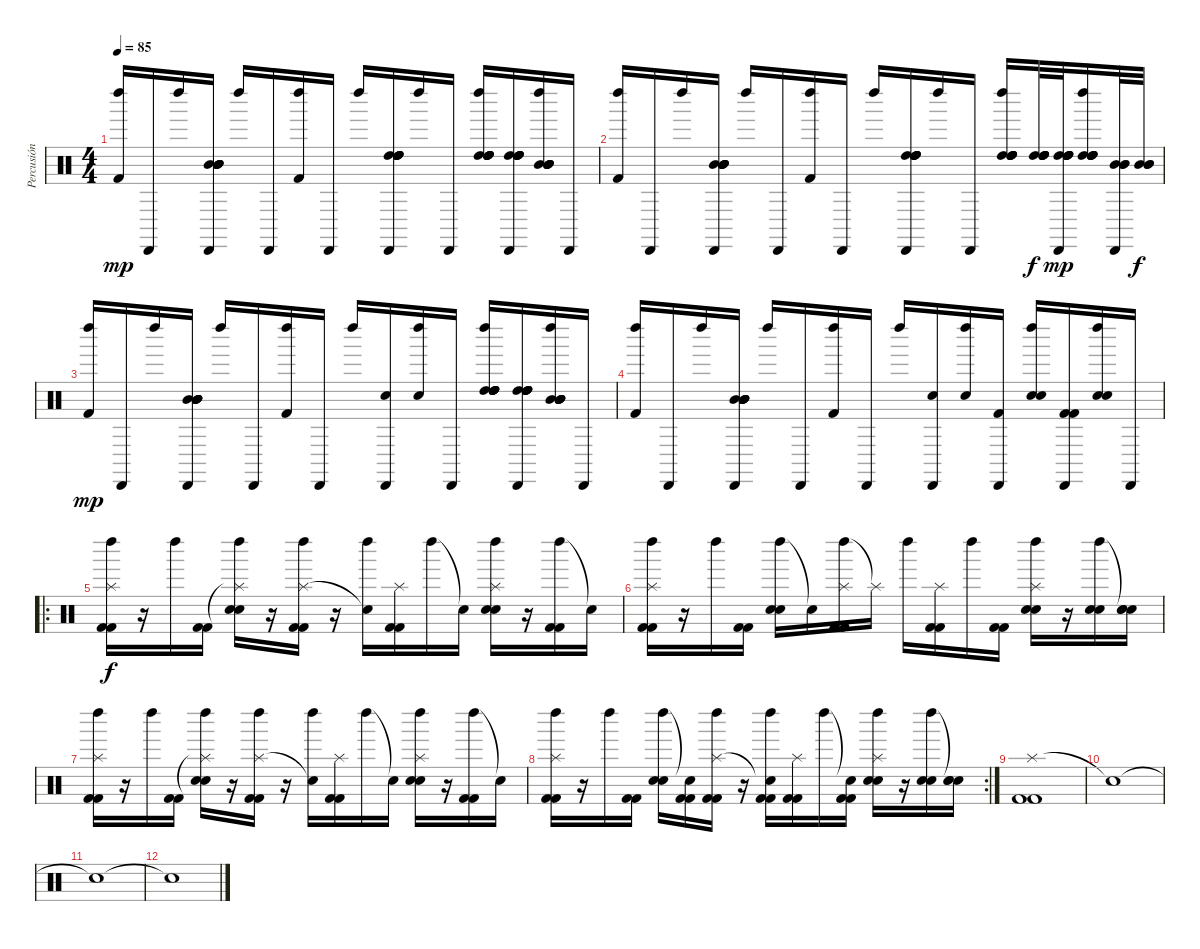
\track ("Percusión" "Percusión") {instrument percussion}
\staff {score}
\articulation defaults
\ts (4 4)
\tempo 85
\clef neutral
\ks c
("Left Maraca (hit)" "Kick (hit) 2").16{dy mp} "Cabasa (hit)".16 "Left Maraca (hit)".16 ("Cabasa (hit)" "Mid Tom (hit)" "Mid Tom (hit)" "Mid Tom (hit)" "Mid Tom (hit)" "Mid Tom (hit)").16 "Left Maraca (hit)".16 "Cabasa (hit)".16 ("Left Maraca (hit)" "Kick (hit) 2").16 "Cabasa (hit)".16 "Left Maraca (hit)".16 ("Cabasa (hit)" "High Tom (hit)" "High Tom (hit)" "High Tom (hit)" "High Tom (hit)" "High Tom (hit)").16 "Left Maraca (hit)".16 "Cabasa (hit)".16 ("Left Maraca (hit)" "High Tom (hit)" "High Tom (hit)" "High Tom (hit)" "High Tom (hit)" "High Tom (hit)").16 ("Cabasa (hit)" "High Tom (hit)" "High Tom (hit)" "High Tom (hit)" "High Tom (hit)" "High Tom (hit)").16 ("Left Maraca (hit)" "Mid Tom (hit)" "Mid Tom (hit)" "Mid Tom (hit)" "Mid Tom (hit)" "Mid Tom (hit)").16 "Cabasa (hit)".16 |
("Left Maraca (hit)" "Kick (hit) 2").16 "Cabasa (hit)".16 "Left Maraca (hit)".16 ("Cabasa (hit)" "Mid Tom (hit)" "Mid Tom (hit)" "Mid Tom (hit)" "Mid Tom (hit)" "Mid Tom (hit)").16 "Left Maraca (hit)".16 "Cabasa (hit)".16 ("Left Maraca (hit)" "Kick (hit) 2").16 "Cabasa (hit)".16 "Left Maraca (hit)".16 ("Cabasa (hit)" "High Tom (hit)" "High Tom (hit)" "High Tom (hit)" "High Tom (hit)" "High Tom (hit)").16 "Left Maraca (hit)".16 "Cabasa (hit)".16 ("Left Maraca (hit)" "High Tom (hit)" "High Tom (hit)" "High Tom (hit)" "High Tom (hit)" "High Tom (hit)").16 ("High Tom (hit)" "High Tom (hit)" "High Tom (hit)" "High Tom (hit)" "High Tom (hit)").32{dy f} ("Cabasa (hit)" "High Tom (hit)" "High Tom (hit)" "High Tom (hit)" "High Tom (hit)" "High Tom (hit)").32{dy mp} ("Left Maraca (hit)" "High Tom (hit)" "High Tom (hit)" "High Tom (hit)" "High Tom (hit)" "High Tom (hit)").16 ("Cabasa (hit)" "Mid Tom (hit)" "Mid Tom (hit)" "Mid Tom (hit)").32 ("Mid Tom (hit)" "Mid Tom (hit)" "Mid Tom (hit)").32{dy f} |
("Left Maraca (hit)" "Kick (hit) 2").16{dy mp} "Cabasa (hit)".16 "Left Maraca (hit)".16 ("Cabasa (hit)" "Mid Tom (hit)" "Mid Tom (hit)" "Mid Tom (hit)" "Mid Tom (hit)" "Mid Tom (hit)").16 "Left Maraca (hit)".16 "Cabasa (hit)".16 ("Left Maraca (hit)" "Kick (hit) 2").16 "Cabasa (hit)".16 "Left Maraca (hit)".16 ("Cabasa (hit)" "Electric Snare (hit)").16 ("Left Maraca (hit)" "Electric Snare (hit)").16 "Cabasa (hit)".16 ("Left Maraca (hit)" "High Tom (hit)" "High Tom (hit)" "High Tom (hit)" "High Tom (hit)" "High Tom (hit)").16 ("Cabasa (hit)" "High Tom (hit)" "High Tom (hit)" "High Tom (hit)" "High Tom (hit)" "High Tom (hit)").16 ("Left Maraca (hit)" "Mid Tom (hit)" "Mid Tom (hit)" "Mid Tom (hit)" "Mid Tom (hit)" "Mid Tom (hit)").16 "Cabasa (hit)".16 |
("Left Maraca (hit)" "Kick (hit) 2").16 "Cabasa (hit)".16 "Left Maraca (hit)".16 ("Cabasa (hit)" "Mid Tom (hit)" "Mid Tom (hit)" "Mid Tom (hit)" "Mid Tom (hit)" "Mid Tom (hit)").16 "Left Maraca (hit)".16 "Cabasa (hit)".16 ("Left Maraca (hit)" "Kick (hit) 2").16 "Cabasa (hit)".16 "Left Maraca (hit)".16 ("Cabasa (hit)" "Electric Snare (hit)").16 ("Left Maraca (hit)" "Electric Snare (hit)").16 ("Cabasa (hit)" "Kick (hit) 2").16 ("Left Maraca (hit)" "Electric Snare (hit)" "Electric Snare (hit)").16 ("Cabasa (hit)" "Kick (hit) 2" "Kick (hit) 2").16 ("Left Maraca (hit)" "Electric Snare (hit)" "Electric Snare (hit)").16 "Cabasa (hit)".16 |
\ro
("Left Maraca (hit)" "Splash (hit)" "Kick (hit) 2" "Kick (hit) 2").16{dy f} r.16 "Left Maraca (hit)".16 ("Kick (hit) 2" "Kick (hit) 2").16 ("Left Maraca (hit)" "Splash (hit)"{t} "Electric Snare (hit)" "Electric Snare (hit)").16 r.16 ("Left Maraca (hit)" "Splash (hit)" "Kick (hit) 2" "Kick (hit) 2").16 r.16 ("Left Maraca (hit)" "Snare (hit)"{t}).16 ("Splash (hit)" "Kick (hit) 2" "Kick (hit) 2").16 "Left Maraca (hit)".16 "Snare (hit)"{t}.16 ("Left Maraca (hit)" "Splash (hit)" "Electric Snare (hit)" "Electric Snare (hit)").16 r.16 ("Left Maraca (hit)" "Kick (hit) 2" "Kick (hit) 2").16 "Snare (hit)"{t}.16 |
("Left Maraca (hit)" "Splash (hit)" "Kick (hit) 2" "Kick (hit) 2").16 r.16 "Left Maraca (hit)".16 ("Kick (hit) 2" "Kick (hit) 2").16 ("Left Maraca (hit)" "Electric Snare (hit)" "Electric Snare (hit)").16 "Snare (hit)"{t}.16 ("Left Maraca (hit)" "Splash (hit)" "Kick (hit) 2" "Kick (hit) 2").16 "Splash (hit)"{t}.16 "Left Maraca (hit)".16 ("Splash (hit)" "Kick (hit) 2" "Kick (hit) 2").16 "Left Maraca (hit)".16 ("Kick (hit) 2" "Kick (hit) 2").16 ("Left Maraca (hit)" "Splash (hit)" "Electric Snare (hit)" "Electric Snare (hit)").16 r.16 ("Left Maraca (hit)" "Electric Snare (hit)" "Electric Snare (hit)").16 ("Snare (hit)"{t} "Electric Snare (hit)" "Electric Snare (hit)").16 |
("Left Maraca (hit)" "Splash (hit)" "Kick (hit) 2" "Kick (hit) 2").16 r.16 "Left Maraca (hit)".16 ("Kick (hit) 2" "Kick (hit) 2").16 ("Left Maraca (hit)" "Splash (hit)"{t} "Electric Snare (hit)" "Electric Snare (hit)").16 r.16 ("Left Maraca (hit)" "Splash (hit)" "Kick (hit) 2" "Kick (hit) 2").16 r.16 ("Left Maraca (hit)" "Snare (hit)"{t}).16 ("Splash (hit)" "Kick (hit) 2" "Kick (hit) 2").16 "Left Maraca (hit)".16 "Snare (hit)"{t}.16 ("Left Maraca (hit)" "Splash (hit)" "Electric Snare (hit)" "Electric Snare (hit)").16 r.16 ("Left Maraca (hit)" "Kick (hit) 2" "Kick (hit) 2").16 "Snare (hit)"{t}.16 |
\rc 2
("Left Maraca (hit)" "Splash (hit)" "Kick (hit) 2" "Kick (hit) 2").16 r.16 "Left Maraca (hit)".16 ("Kick (hit) 2" "Kick (hit) 2").16 ("Left Maraca (hit)" "Electric Snare (hit)" "Electric Snare (hit)").16 ("Snare (hit)"{t} "Kick (hit) 2" "Kick (hit) 2").16 ("Left Maraca (hit)" "Splash (hit)" "Kick (hit) 2" "Kick (hit) 2").16 r.16 ("Left Maraca (hit)" "Snare (hit)"{t} "Kick (hit) 2" "Kick (hit) 2").16 ("Splash (hit)" "Kick (hit) 2" "Kick (hit) 2").16 "Left Maraca (hit)".16 ("Snare (hit)"{t} "Kick (hit) 2" "Kick (hit) 2").16 ("Left Maraca (hit)" "Splash (hit)" "Electric Snare (hit)" "Electric Snare (hit)").16 r.16 ("Left Maraca (hit)" "Electric Snare (hit)" "Electric Snare (hit)").16 ("Snare (hit)"{t} "Electric Snare (hit)" "Electric Snare (hit)").16 |
("Splash (hit)" "Kick (hit) 2" "Kick (hit) 2").1 |
"Snare (hit)"{t}.1 |
"Snare (hit)"{t}.1 |
"Snare (hit)"{t}.1
